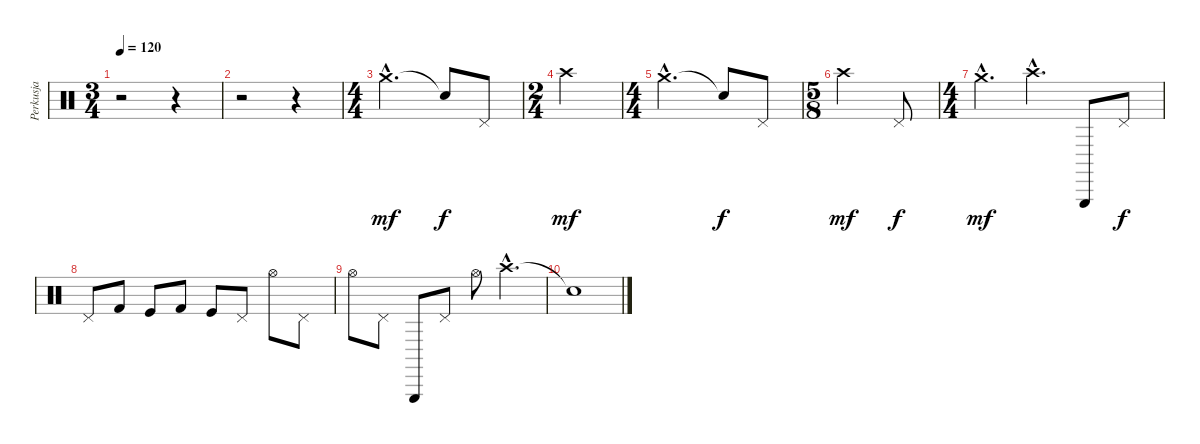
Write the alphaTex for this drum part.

\track ("Perkusja" "Perkusja") {instrument percussion}
\staff {score}
\articulation defaults
\ts (3 4)
\tempo 120
\clef neutral
\ks c
r.2{dy mp} r.4 |
r.2 r.4 |
\ts (4 4)
"Crash medium (hit)"{hac}.2{d dy mf} "Snare (hit)"{t}.8{dy f} "Pedal Hi-Hat (hit)".8 |
\ts (2 4)
"Crash high (hit)".2{dy mf} |
\ts (4 4)
"Crash medium (hit)"{hac}.2{d} "Snare (hit)"{t}.8{dy f} "Pedal Hi-Hat (hit)".8 |
\ts (5 8)
"Crash high (hit)".2{dy mf} "Pedal Hi-Hat (hit)".8{dy f} |
\ts (4 4)
"Crash medium (hit)"{hac}.4{d dy mf} "Crash high (hit)"{hac}.4{d} "Triangle (hit)".8 "Pedal Hi-Hat (hit)".8{dy f} |
"Pedal Hi-Hat (hit)".8 "Kick (hit) 2".8 "Kick (hit)".8 "Kick (hit) 2".8 "Kick (hit)".8 "Pedal Hi-Hat (hit)".8 "Hi-Hat (open)".8 "Pedal Hi-Hat (hit)".8 |
"Hi-Hat (open)".8 "Pedal Hi-Hat (hit)".8 "Triangle (hit)".8 "Pedal Hi-Hat (hit)".8 "Hi-Hat (open)".8 "Crash high (hit)"{hac}.4{d} |
"Snare (hit)"{t}.1
